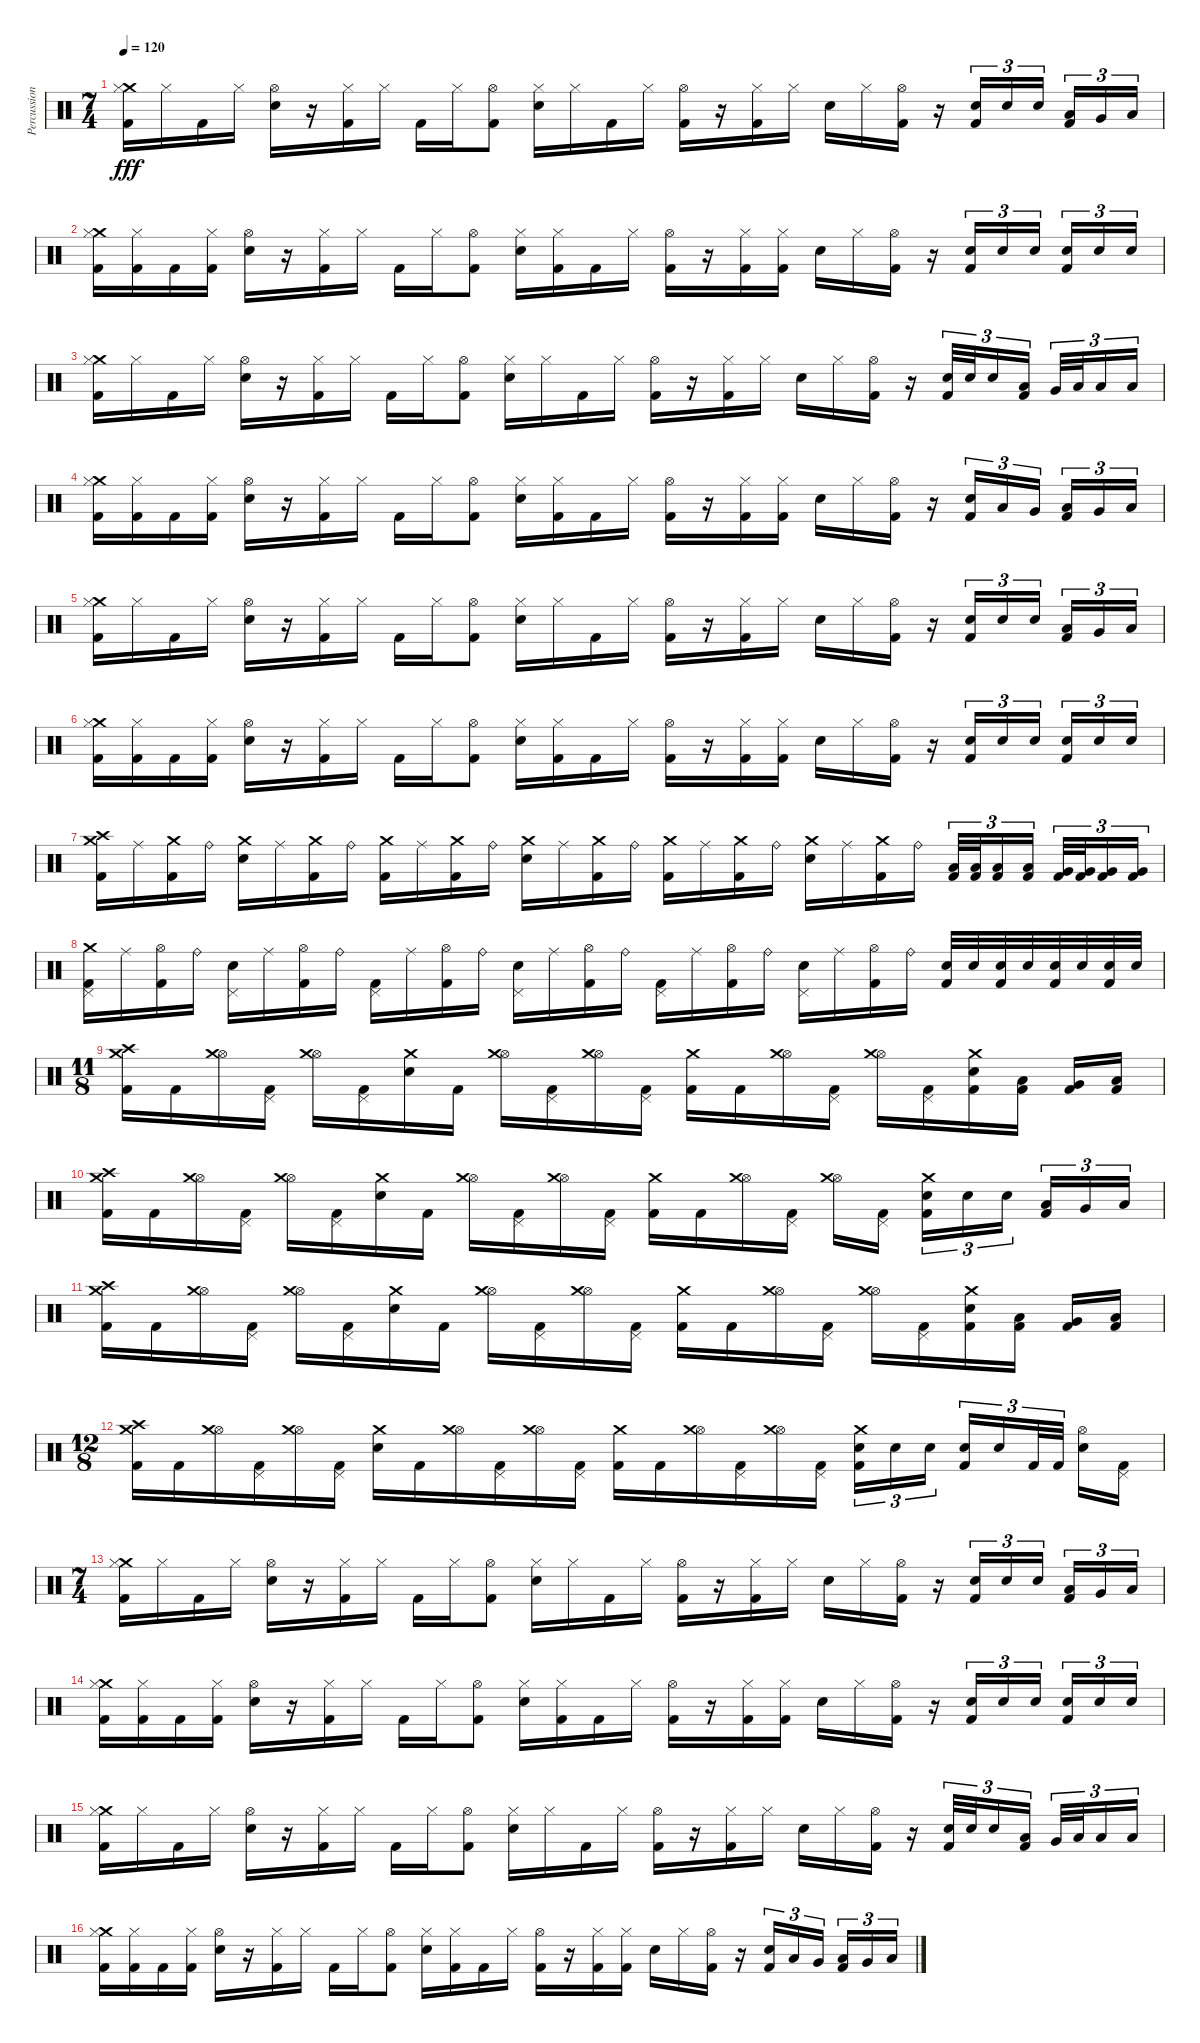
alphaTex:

\track ("Percussion" "Percussion") {instrument percussion}
\staff {score}
\articulation defaults
\ts (7 4)
\tempo 120
\clef neutral
\ks c
("Crash medium (hit)" "Hi-Hat (closed)" "Kick (hit) 2").16{dy fff} "Hi-Hat (closed)".16 "Kick (hit) 2".16 "Hi-Hat (closed)".16 ("Hi-Hat (open)" "Electric Snare (hit)").16 r.16 ("Hi-Hat (closed)" "Kick (hit) 2").16 "Hi-Hat (closed)".16 "Kick (hit) 2".16 "Hi-Hat (closed)".16 ("Hi-Hat (open)" "Kick (hit) 2").8 ("Hi-Hat (closed)" "Electric Snare (hit)").16 "Hi-Hat (closed)".16 "Kick (hit) 2".16 "Hi-Hat (closed)".16 ("Hi-Hat (open)" "Kick (hit) 2").16 r.16 ("Hi-Hat (closed)" "Kick (hit) 2").16 "Hi-Hat (closed)".16 "Electric Snare (hit)".16 "Hi-Hat (closed)".16 ("Hi-Hat (open)" "Kick (hit) 2").16 r.16 ("Electric Snare (hit)" "Kick (hit) 2").16{tu (3 2)} "Electric Snare (hit)".16{tu (3 2)} "Electric Snare (hit)".16{tu (3 2) beam splitsecondary} ("Low Tom (hit)" "Kick (hit) 2").16{tu (3 2)} "Very Low Tom (hit)".16{tu (3 2)} "Low Floor Tom (hit)".16{tu (3 2)} |
("Crash medium (hit)" "Hi-Hat (closed)" "Kick (hit) 2").16 ("Hi-Hat (closed)" "Kick (hit) 2").16 "Kick (hit) 2".16 ("Hi-Hat (closed)" "Kick (hit) 2").16 ("Hi-Hat (open)" "Electric Snare (hit)").16 r.16 ("Hi-Hat (closed)" "Kick (hit) 2").16 "Hi-Hat (closed)".16 "Kick (hit) 2".16 "Hi-Hat (closed)".16 ("Hi-Hat (open)" "Kick (hit) 2").8 ("Hi-Hat (closed)" "Electric Snare (hit)").16 ("Hi-Hat (closed)" "Kick (hit) 2").16 "Kick (hit) 2".16 "Hi-Hat (closed)".16 ("Hi-Hat (open)" "Kick (hit) 2").16 r.16 ("Hi-Hat (closed)" "Kick (hit) 2").16 ("Hi-Hat (closed)" "Kick (hit) 2").16 "Electric Snare (hit)".16 "Hi-Hat (closed)".16 ("Hi-Hat (open)" "Kick (hit) 2").16 r.16 ("Electric Snare (hit)" "Kick (hit) 2").16{tu (3 2)} "Electric Snare (hit)".16{tu (3 2)} "Electric Snare (hit)".16{tu (3 2) beam splitsecondary} ("Electric Snare (hit)" "Kick (hit) 2").16{tu (3 2)} "Electric Snare (hit)".16{tu (3 2)} "Electric Snare (hit)".16{tu (3 2)} |
("Crash medium (hit)" "Hi-Hat (closed)" "Kick (hit) 2").16 "Hi-Hat (closed)".16 "Kick (hit) 2".16 "Hi-Hat (closed)".16 ("Hi-Hat (open)" "Electric Snare (hit)").16 r.16 ("Hi-Hat (closed)" "Kick (hit) 2").16 "Hi-Hat (closed)".16 "Kick (hit) 2".16 "Hi-Hat (closed)".16 ("Hi-Hat (open)" "Kick (hit) 2").8 ("Hi-Hat (closed)" "Electric Snare (hit)").16 "Hi-Hat (closed)".16 "Kick (hit) 2".16 "Hi-Hat (closed)".16 ("Hi-Hat (open)" "Kick (hit) 2").16 r.16 ("Hi-Hat (closed)" "Kick (hit) 2").16 "Hi-Hat (closed)".16 "Electric Snare (hit)".16 "Hi-Hat (closed)".16 ("Hi-Hat (open)" "Kick (hit) 2").16 r.16 ("Electric Snare (hit)" "Kick (hit) 2").32{tu (3 2)} "Electric Snare (hit)".32{tu (3 2)} "Electric Snare (hit)".16{tu (3 2)} ("Low Tom (hit)" "Kick (hit) 2").16{tu (3 2) beam splitsecondary} "Very Low Tom (hit)".32{tu (3 2)} "Low Floor Tom (hit)".32{tu (3 2)} "Low Floor Tom (hit)".16{tu (3 2)} "Low Floor Tom (hit)".16{tu (3 2)} |
("Crash medium (hit)" "Hi-Hat (closed)" "Kick (hit) 2").16 ("Hi-Hat (closed)" "Kick (hit) 2").16 "Kick (hit) 2".16 ("Hi-Hat (closed)" "Kick (hit) 2").16 ("Hi-Hat (open)" "Electric Snare (hit)").16 r.16 ("Hi-Hat (closed)" "Kick (hit) 2").16 "Hi-Hat (closed)".16 "Kick (hit) 2".16 "Hi-Hat (closed)".16 ("Hi-Hat (open)" "Kick (hit) 2").8 ("Hi-Hat (closed)" "Electric Snare (hit)").16 ("Hi-Hat (closed)" "Kick (hit) 2").16 "Kick (hit) 2".16 "Hi-Hat (closed)".16 ("Hi-Hat (open)" "Kick (hit) 2").16 r.16 ("Hi-Hat (closed)" "Kick (hit) 2").16 ("Hi-Hat (closed)" "Kick (hit) 2").16 "Electric Snare (hit)".16 "Hi-Hat (closed)".16 ("Hi-Hat (open)" "Kick (hit) 2").16 r.16 ("Electric Snare (hit)" "Kick (hit) 2").16{tu (3 2)} "Low Tom (hit)".16{tu (3 2)} "Very Low Tom (hit)".16{tu (3 2) beam splitsecondary} ("Low Tom (hit)" "Kick (hit) 2").16{tu (3 2)} "Very Low Tom (hit)".16{tu (3 2)} "Low Floor Tom (hit)".16{tu (3 2)} |
("Crash medium (hit)" "Hi-Hat (closed)" "Kick (hit) 2").16 "Hi-Hat (closed)".16 "Kick (hit) 2".16 "Hi-Hat (closed)".16 ("Hi-Hat (open)" "Electric Snare (hit)").16 r.16 ("Hi-Hat (closed)" "Kick (hit) 2").16 "Hi-Hat (closed)".16 "Kick (hit) 2".16 "Hi-Hat (closed)".16 ("Hi-Hat (open)" "Kick (hit) 2").8 ("Hi-Hat (closed)" "Electric Snare (hit)").16 "Hi-Hat (closed)".16 "Kick (hit) 2".16 "Hi-Hat (closed)".16 ("Hi-Hat (open)" "Kick (hit) 2").16 r.16 ("Hi-Hat (closed)" "Kick (hit) 2").16 "Hi-Hat (closed)".16 "Electric Snare (hit)".16 "Hi-Hat (closed)".16 ("Hi-Hat (open)" "Kick (hit) 2").16 r.16 ("Electric Snare (hit)" "Kick (hit) 2").16{tu (3 2)} "Electric Snare (hit)".16{tu (3 2)} "Electric Snare (hit)".16{tu (3 2) beam splitsecondary} ("Low Tom (hit)" "Kick (hit) 2").16{tu (3 2)} "Very Low Tom (hit)".16{tu (3 2)} "Low Floor Tom (hit)".16{tu (3 2)} |
("Crash medium (hit)" "Hi-Hat (closed)" "Kick (hit) 2").16 ("Hi-Hat (closed)" "Kick (hit) 2").16 "Kick (hit) 2".16 ("Hi-Hat (closed)" "Kick (hit) 2").16 ("Hi-Hat (open)" "Electric Snare (hit)").16 r.16 ("Hi-Hat (closed)" "Kick (hit) 2").16 "Hi-Hat (closed)".16 "Kick (hit) 2".16 "Hi-Hat (closed)".16 ("Hi-Hat (open)" "Kick (hit) 2").8 ("Hi-Hat (closed)" "Electric Snare (hit)").16 ("Hi-Hat (closed)" "Kick (hit) 2").16 "Kick (hit) 2".16 "Hi-Hat (closed)".16 ("Hi-Hat (open)" "Kick (hit) 2").16 r.16 ("Hi-Hat (closed)" "Kick (hit) 2").16 ("Hi-Hat (closed)" "Kick (hit) 2").16 "Electric Snare (hit)".16 "Hi-Hat (closed)".16 ("Hi-Hat (open)" "Kick (hit) 2").16 r.16 ("Electric Snare (hit)" "Kick (hit) 2").16{tu (3 2)} "Electric Snare (hit)".16{tu (3 2)} "Electric Snare (hit)".16{tu (3 2) beam splitsecondary} ("Electric Snare (hit)" "Kick (hit) 2").16{tu (3 2)} "Electric Snare (hit)".16{tu (3 2)} "Electric Snare (hit)".16{tu (3 2)} |
("Crash high (hit)" "Crash medium (hit)" "Kick (hit) 2").16 "Ride (middle)".16 ("Crash medium (hit)" "Kick (hit) 2").16 "Ride (bell)".16 ("Crash medium (hit)" "Electric Snare (hit)").16 "Ride (middle)".16 ("Crash medium (hit)" "Kick (hit) 2").16 "Ride (bell)".16 ("Crash medium (hit)" "Kick (hit) 2").16 "Ride (middle)".16 ("Crash medium (hit)" "Kick (hit) 2").16 "Ride (bell)".16 ("Crash medium (hit)" "Electric Snare (hit)").16 "Ride (middle)".16 ("Crash medium (hit)" "Kick (hit) 2").16 "Ride (bell)".16 ("Crash medium (hit)" "Kick (hit) 2").16 "Ride (middle)".16 ("Crash medium (hit)" "Kick (hit) 2").16 "Ride (bell)".16 ("Crash medium (hit)" "Electric Snare (hit)").16 "Ride (middle)".16 ("Crash medium (hit)" "Kick (hit) 2").16 "Ride (bell)".16 ("Low Tom (hit)" "Kick (hit) 2").32{tu (3 2)} ("Low Tom (hit)" "Kick (hit) 2").32{tu (3 2)} ("Low Tom (hit)" "Kick (hit) 2").16{tu (3 2)} ("Low Tom (hit)" "Kick (hit) 2").16{tu (3 2) beam splitsecondary} ("Very Low Tom (hit)" "Kick (hit) 2").32{tu (3 2)} ("Very Low Tom (hit)" "Kick (hit) 2").32{tu (3 2)} ("Very Low Tom (hit)" "Kick (hit) 2").16{tu (3 2)} ("Very Low Tom (hit)" "Kick (hit) 2").16{tu (3 2)} |
("Pedal Hi-Hat (hit)" "Crash medium (hit)" "Kick (hit) 2").16 "Ride (middle)".16 ("Hi-Hat (open)" "Kick (hit) 2").16 "Ride (bell)".16 ("Pedal Hi-Hat (hit)" "Electric Snare (hit)").16 "Ride (middle)".16 ("Hi-Hat (open)" "Kick (hit) 2").16 "Ride (bell)".16 ("Pedal Hi-Hat (hit)" "Kick (hit) 2").16 "Ride (middle)".16 ("Hi-Hat (open)" "Kick (hit) 2").16 "Ride (bell)".16 ("Pedal Hi-Hat (hit)" "Electric Snare (hit)").16 "Ride (middle)".16 ("Hi-Hat (open)" "Kick (hit) 2").16 "Ride (bell)".16 ("Pedal Hi-Hat (hit)" "Kick (hit) 2").16 "Ride (middle)".16 ("Hi-Hat (open)" "Kick (hit) 2").16 "Ride (bell)".16 ("Pedal Hi-Hat (hit)" "Electric Snare (hit)").16 "Ride (middle)".16 ("Hi-Hat (open)" "Kick (hit) 2").16 "Ride (bell)".16 ("Electric Snare (hit)" "Kick (hit) 2").32 "Electric Snare (hit)".32 ("Electric Snare (hit)" "Kick (hit) 2").32 "Electric Snare (hit)".32 ("Electric Snare (hit)" "Kick (hit) 2").32 "Electric Snare (hit)".32 ("Electric Snare (hit)" "Kick (hit) 2").32 "Electric Snare (hit)".32 |
\ts (11 8)
("Crash high (hit)" "Crash medium (hit)" "Kick (hit) 2").16 "Kick (hit) 2".16 ("Hi-Hat (open)" "Crash medium (hit)").16 ("Pedal Hi-Hat (hit)" "Kick (hit) 2").16 ("Hi-Hat (open)" "Crash medium (hit)").16 ("Pedal Hi-Hat (hit)" "Kick (hit) 2").16 ("Crash medium (hit)" "Electric Snare (hit)").16 "Kick (hit) 2".16 ("Hi-Hat (open)" "Crash medium (hit)").16 ("Pedal Hi-Hat (hit)" "Kick (hit) 2").16 ("Hi-Hat (open)" "Crash medium (hit)").16 ("Pedal Hi-Hat (hit)" "Kick (hit) 2").16 ("Crash medium (hit)" "Kick (hit) 2").16 "Kick (hit) 2".16 ("Hi-Hat (open)" "Crash medium (hit)").16 ("Pedal Hi-Hat (hit)" "Kick (hit) 2").16 ("Hi-Hat (open)" "Crash medium (hit)").16 ("Pedal Hi-Hat (hit)" "Kick (hit) 2").16 ("Crash medium (hit)" "Electric Snare (hit)" "Kick (hit) 2").16 ("Low Tom (hit)" "Kick (hit) 2").16 ("Very Low Tom (hit)" "Kick (hit) 2").16 ("Low Floor Tom (hit)" "Kick (hit) 2").16 |
("Crash high (hit)" "Crash medium (hit)" "Kick (hit) 2").16 "Kick (hit) 2".16 ("Hi-Hat (open)" "Crash medium (hit)").16 ("Pedal Hi-Hat (hit)" "Kick (hit) 2").16 ("Hi-Hat (open)" "Crash medium (hit)").16 ("Pedal Hi-Hat (hit)" "Kick (hit) 2").16 ("Crash medium (hit)" "Electric Snare (hit)").16 "Kick (hit) 2".16 ("Hi-Hat (open)" "Crash medium (hit)").16 ("Pedal Hi-Hat (hit)" "Kick (hit) 2").16 ("Hi-Hat (open)" "Crash medium (hit)").16 ("Pedal Hi-Hat (hit)" "Kick (hit) 2").16 ("Crash medium (hit)" "Kick (hit) 2").16 "Kick (hit) 2".16 ("Hi-Hat (open)" "Crash medium (hit)").16 ("Pedal Hi-Hat (hit)" "Kick (hit) 2").16 ("Hi-Hat (open)" "Crash medium (hit)").16 ("Pedal Hi-Hat (hit)" "Kick (hit) 2").16 ("Crash medium (hit)" "Electric Snare (hit)" "Kick (hit) 2").16{tu (3 2)} "Electric Snare (hit)".16{tu (3 2)} "Electric Snare (hit)".16{tu (3 2)} ("Low Tom (hit)" "Kick (hit) 2").16{tu (3 2)} "Very Low Tom (hit)".16{tu (3 2)} "Low Floor Tom (hit)".16{tu (3 2)} |
("Crash high (hit)" "Crash medium (hit)" "Kick (hit) 2").16 "Kick (hit) 2".16 ("Hi-Hat (open)" "Crash medium (hit)").16 ("Pedal Hi-Hat (hit)" "Kick (hit) 2").16 ("Hi-Hat (open)" "Crash medium (hit)").16 ("Pedal Hi-Hat (hit)" "Kick (hit) 2").16 ("Crash medium (hit)" "Electric Snare (hit)").16 "Kick (hit) 2".16 ("Hi-Hat (open)" "Crash medium (hit)").16 ("Pedal Hi-Hat (hit)" "Kick (hit) 2").16 ("Hi-Hat (open)" "Crash medium (hit)").16 ("Pedal Hi-Hat (hit)" "Kick (hit) 2").16 ("Crash medium (hit)" "Kick (hit) 2").16 "Kick (hit) 2".16 ("Hi-Hat (open)" "Crash medium (hit)").16 ("Pedal Hi-Hat (hit)" "Kick (hit) 2").16 ("Hi-Hat (open)" "Crash medium (hit)").16 ("Pedal Hi-Hat (hit)" "Kick (hit) 2").16 ("Crash medium (hit)" "Electric Snare (hit)" "Kick (hit) 2").16 ("Low Tom (hit)" "Kick (hit) 2").16 ("Very Low Tom (hit)" "Kick (hit) 2").16 ("Low Floor Tom (hit)" "Kick (hit) 2").16 |
\ts (12 8)
("Crash high (hit)" "Crash medium (hit)" "Kick (hit) 2").16 "Kick (hit) 2".16 ("Hi-Hat (open)" "Crash medium (hit)").16 ("Pedal Hi-Hat (hit)" "Kick (hit) 2").16 ("Hi-Hat (open)" "Crash medium (hit)").16 ("Pedal Hi-Hat (hit)" "Kick (hit) 2").16 ("Crash medium (hit)" "Electric Snare (hit)").16 "Kick (hit) 2".16 ("Hi-Hat (open)" "Crash medium (hit)").16 ("Pedal Hi-Hat (hit)" "Kick (hit) 2").16 ("Hi-Hat (open)" "Crash medium (hit)").16 ("Pedal Hi-Hat (hit)" "Kick (hit) 2").16 ("Crash medium (hit)" "Kick (hit) 2").16 "Kick (hit) 2".16 ("Hi-Hat (open)" "Crash medium (hit)").16 ("Pedal Hi-Hat (hit)" "Kick (hit) 2").16 ("Hi-Hat (open)" "Crash medium (hit)").16 ("Pedal Hi-Hat (hit)" "Kick (hit) 2").16 ("Crash medium (hit)" "Electric Snare (hit)" "Kick (hit) 2").16{tu (3 2)} "Electric Snare (hit)".16{tu (3 2)} "Electric Snare (hit)".16{tu (3 2) beam splitsecondary} ("Electric Snare (hit)" "Kick (hit) 2").16{tu (3 2)} "Electric Snare (hit)".16{tu (3 2)} "Kick (hit) 2".32{tu (3 2)} "Kick (hit) 2".32{tu (3 2) beam splitsecondary} ("Hi-Hat (open)" "Electric Snare (hit)").16 ("Pedal Hi-Hat (hit)" "Kick (hit) 2").16 |
\ts (7 4)
("Crash medium (hit)" "Hi-Hat (closed)" "Kick (hit) 2").16 "Hi-Hat (closed)".16 "Kick (hit) 2".16 "Hi-Hat (closed)".16 ("Hi-Hat (open)" "Electric Snare (hit)").16 r.16 ("Hi-Hat (closed)" "Kick (hit) 2").16 "Hi-Hat (closed)".16 "Kick (hit) 2".16 "Hi-Hat (closed)".16 ("Hi-Hat (open)" "Kick (hit) 2").8 ("Hi-Hat (closed)" "Electric Snare (hit)").16 "Hi-Hat (closed)".16 "Kick (hit) 2".16 "Hi-Hat (closed)".16 ("Hi-Hat (open)" "Kick (hit) 2").16 r.16 ("Hi-Hat (closed)" "Kick (hit) 2").16 "Hi-Hat (closed)".16 "Electric Snare (hit)".16 "Hi-Hat (closed)".16 ("Hi-Hat (open)" "Kick (hit) 2").16 r.16 ("Electric Snare (hit)" "Kick (hit) 2").16{tu (3 2)} "Electric Snare (hit)".16{tu (3 2)} "Electric Snare (hit)".16{tu (3 2) beam splitsecondary} ("Low Tom (hit)" "Kick (hit) 2").16{tu (3 2)} "Very Low Tom (hit)".16{tu (3 2)} "Low Floor Tom (hit)".16{tu (3 2)} |
("Crash medium (hit)" "Hi-Hat (closed)" "Kick (hit) 2").16 ("Hi-Hat (closed)" "Kick (hit) 2").16 "Kick (hit) 2".16 ("Hi-Hat (closed)" "Kick (hit) 2").16 ("Hi-Hat (open)" "Electric Snare (hit)").16 r.16 ("Hi-Hat (closed)" "Kick (hit) 2").16 "Hi-Hat (closed)".16 "Kick (hit) 2".16 "Hi-Hat (closed)".16 ("Hi-Hat (open)" "Kick (hit) 2").8 ("Hi-Hat (closed)" "Electric Snare (hit)").16 ("Hi-Hat (closed)" "Kick (hit) 2").16 "Kick (hit) 2".16 "Hi-Hat (closed)".16 ("Hi-Hat (open)" "Kick (hit) 2").16 r.16 ("Hi-Hat (closed)" "Kick (hit) 2").16 ("Hi-Hat (closed)" "Kick (hit) 2").16 "Electric Snare (hit)".16 "Hi-Hat (closed)".16 ("Hi-Hat (open)" "Kick (hit) 2").16 r.16 ("Electric Snare (hit)" "Kick (hit) 2").16{tu (3 2)} "Electric Snare (hit)".16{tu (3 2)} "Electric Snare (hit)".16{tu (3 2) beam splitsecondary} ("Electric Snare (hit)" "Kick (hit) 2").16{tu (3 2)} "Electric Snare (hit)".16{tu (3 2)} "Electric Snare (hit)".16{tu (3 2)} |
("Crash medium (hit)" "Hi-Hat (closed)" "Kick (hit) 2").16 "Hi-Hat (closed)".16 "Kick (hit) 2".16 "Hi-Hat (closed)".16 ("Hi-Hat (open)" "Electric Snare (hit)").16 r.16 ("Hi-Hat (closed)" "Kick (hit) 2").16 "Hi-Hat (closed)".16 "Kick (hit) 2".16 "Hi-Hat (closed)".16 ("Hi-Hat (open)" "Kick (hit) 2").8 ("Hi-Hat (closed)" "Electric Snare (hit)").16 "Hi-Hat (closed)".16 "Kick (hit) 2".16 "Hi-Hat (closed)".16 ("Hi-Hat (open)" "Kick (hit) 2").16 r.16 ("Hi-Hat (closed)" "Kick (hit) 2").16 "Hi-Hat (closed)".16 "Electric Snare (hit)".16 "Hi-Hat (closed)".16 ("Hi-Hat (open)" "Kick (hit) 2").16 r.16 ("Electric Snare (hit)" "Kick (hit) 2").32{tu (3 2)} "Electric Snare (hit)".32{tu (3 2)} "Electric Snare (hit)".16{tu (3 2)} ("Low Tom (hit)" "Kick (hit) 2").16{tu (3 2) beam splitsecondary} "Very Low Tom (hit)".32{tu (3 2)} "Low Floor Tom (hit)".32{tu (3 2)} "Low Floor Tom (hit)".16{tu (3 2)} "Low Floor Tom (hit)".16{tu (3 2)} |
("Crash medium (hit)" "Hi-Hat (closed)" "Kick (hit) 2").16 ("Hi-Hat (closed)" "Kick (hit) 2").16 "Kick (hit) 2".16 ("Hi-Hat (closed)" "Kick (hit) 2").16 ("Hi-Hat (open)" "Electric Snare (hit)").16 r.16 ("Hi-Hat (closed)" "Kick (hit) 2").16 "Hi-Hat (closed)".16 "Kick (hit) 2".16 "Hi-Hat (closed)".16 ("Hi-Hat (open)" "Kick (hit) 2").8 ("Hi-Hat (closed)" "Electric Snare (hit)").16 ("Hi-Hat (closed)" "Kick (hit) 2").16 "Kick (hit) 2".16 "Hi-Hat (closed)".16 ("Hi-Hat (open)" "Kick (hit) 2").16 r.16 ("Hi-Hat (closed)" "Kick (hit) 2").16 ("Hi-Hat (closed)" "Kick (hit) 2").16 "Electric Snare (hit)".16 "Hi-Hat (closed)".16 ("Hi-Hat (open)" "Kick (hit) 2").16 r.16 ("Electric Snare (hit)" "Kick (hit) 2").16{tu (3 2)} "Low Tom (hit)".16{tu (3 2)} "Very Low Tom (hit)".16{tu (3 2) beam splitsecondary} ("Low Tom (hit)" "Kick (hit) 2").16{tu (3 2)} "Very Low Tom (hit)".16{tu (3 2)} "Low Floor Tom (hit)".16{tu (3 2)}
